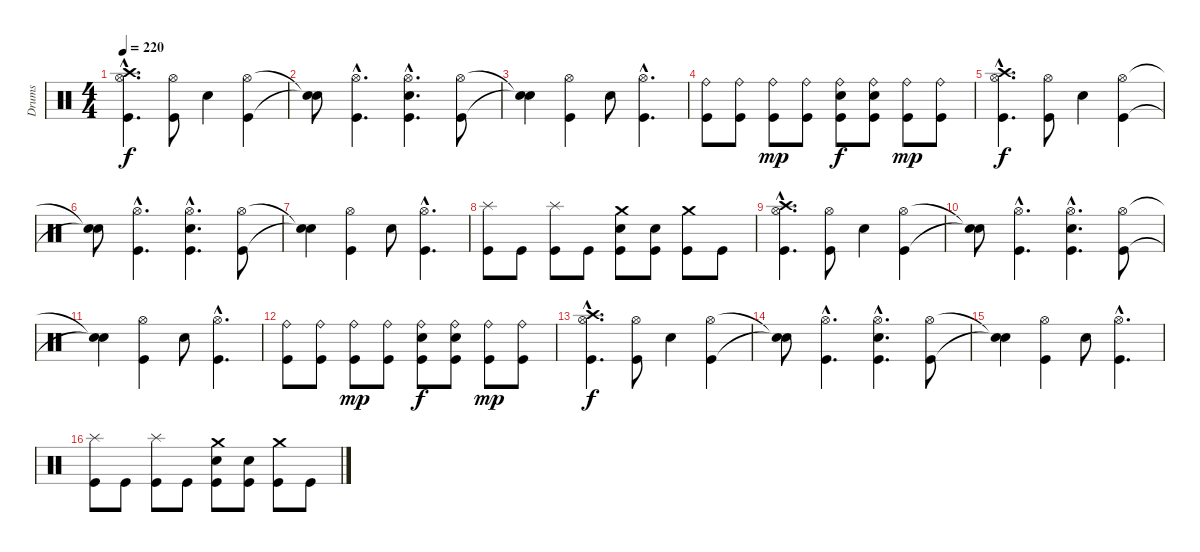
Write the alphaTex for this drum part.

\track ("Drums" "Drums") {instrument percussion}
\staff {score}
\articulation defaults
\ts (4 4)
\tempo 220
\clef neutral
\ks c
("Crash high (hit)"{hac} "Hi-Hat (open)"{hac} "Kick (hit)"{hac}).4{d dy f} ("Hi-Hat (open)" "Kick (hit)").8 "Electric Snare (hit)".4 ("Hi-Hat (open)" "Kick (hit)").4 |
("Snare (hit)"{t} "Snare (hit)"{t}).8 ("Hi-Hat (open)"{hac} "Kick (hit)"{hac}).4{d} ("Hi-Hat (open)"{hac} "Electric Snare (hit)"{hac} "Kick (hit)"{hac}).4{d} ("Hi-Hat (open)" "Kick (hit)").8 |
("Snare (hit)"{t} "Snare (hit)"{t}).4 ("Hi-Hat (open)" "Kick (hit)").4 "Electric Snare (hit)".8 ("Hi-Hat (open)"{hac} "Kick (hit)"{hac}).4{d} |
("Ride (bell)" "Kick (hit)").8 ("Ride (bell)" "Kick (hit)").8 ("Ride (bell)" "Kick (hit)").8{dy mp} ("Ride (bell)" "Kick (hit)").8 ("Ride (bell)" "Electric Snare (hit)" "Kick (hit)").8{dy f} ("Ride (bell)" "Electric Snare (hit)" "Kick (hit)").8 ("Ride (bell)" "Kick (hit)").8{dy mp} ("Ride (bell)" "Kick (hit)").8 |
("Crash high (hit)"{hac} "Hi-Hat (open)"{hac} "Kick (hit)"{hac}).4{d dy f} ("Hi-Hat (open)" "Kick (hit)").8 "Electric Snare (hit)".4 ("Hi-Hat (open)" "Kick (hit)").4 |
("Snare (hit)"{t} "Snare (hit)"{t}).8 ("Hi-Hat (open)"{hac} "Kick (hit)"{hac}).4{d} ("Hi-Hat (open)"{hac} "Electric Snare (hit)"{hac} "Kick (hit)"{hac}).4{d} ("Hi-Hat (open)" "Kick (hit)").8 |
("Snare (hit)"{t} "Snare (hit)"{t}).4 ("Hi-Hat (open)" "Kick (hit)").4 "Electric Snare (hit)".8 ("Hi-Hat (open)"{hac} "Kick (hit)"{hac}).4{d} |
("Splash (hit)" "Kick (hit)").8 "Kick (hit)".8 ("Splash (hit)" "Kick (hit)").8 "Kick (hit)".8 ("Crash medium (hit)" "Electric Snare (hit)" "Kick (hit)").8 ("Electric Snare (hit)" "Kick (hit)").8 ("Crash medium (hit)" "Kick (hit)").8 "Kick (hit)".8 |
("Crash high (hit)"{hac} "Hi-Hat (open)"{hac} "Kick (hit)"{hac}).4{d} ("Hi-Hat (open)" "Kick (hit)").8 "Electric Snare (hit)".4 ("Hi-Hat (open)" "Kick (hit)").4 |
("Snare (hit)"{t} "Snare (hit)"{t}).8 ("Hi-Hat (open)"{hac} "Kick (hit)"{hac}).4{d} ("Hi-Hat (open)"{hac} "Electric Snare (hit)"{hac} "Kick (hit)"{hac}).4{d} ("Hi-Hat (open)" "Kick (hit)").8 |
("Snare (hit)"{t} "Snare (hit)"{t}).4 ("Hi-Hat (open)" "Kick (hit)").4 "Electric Snare (hit)".8 ("Hi-Hat (open)"{hac} "Kick (hit)"{hac}).4{d} |
("Ride (bell)" "Kick (hit)").8 ("Ride (bell)" "Kick (hit)").8 ("Ride (bell)" "Kick (hit)").8{dy mp} ("Ride (bell)" "Kick (hit)").8 ("Ride (bell)" "Electric Snare (hit)" "Kick (hit)").8{dy f} ("Ride (bell)" "Electric Snare (hit)" "Kick (hit)").8 ("Ride (bell)" "Kick (hit)").8{dy mp} ("Ride (bell)" "Kick (hit)").8 |
("Crash high (hit)"{hac} "Hi-Hat (open)"{hac} "Kick (hit)"{hac}).4{d dy f} ("Hi-Hat (open)" "Kick (hit)").8 "Electric Snare (hit)".4 ("Hi-Hat (open)" "Kick (hit)").4 |
("Snare (hit)"{t} "Snare (hit)"{t}).8 ("Hi-Hat (open)"{hac} "Kick (hit)"{hac}).4{d} ("Hi-Hat (open)"{hac} "Electric Snare (hit)"{hac} "Kick (hit)"{hac}).4{d} ("Hi-Hat (open)" "Kick (hit)").8 |
("Snare (hit)"{t} "Snare (hit)"{t}).4 ("Hi-Hat (open)" "Kick (hit)").4 "Electric Snare (hit)".8 ("Hi-Hat (open)"{hac} "Kick (hit)"{hac}).4{d} |
("Splash (hit)" "Kick (hit)").8 "Kick (hit)".8 ("Splash (hit)" "Kick (hit)").8 "Kick (hit)".8 ("Crash medium (hit)" "Electric Snare (hit)" "Kick (hit)").8 ("Electric Snare (hit)" "Kick (hit)").8 ("Crash medium (hit)" "Kick (hit)").8 "Kick (hit)".8
